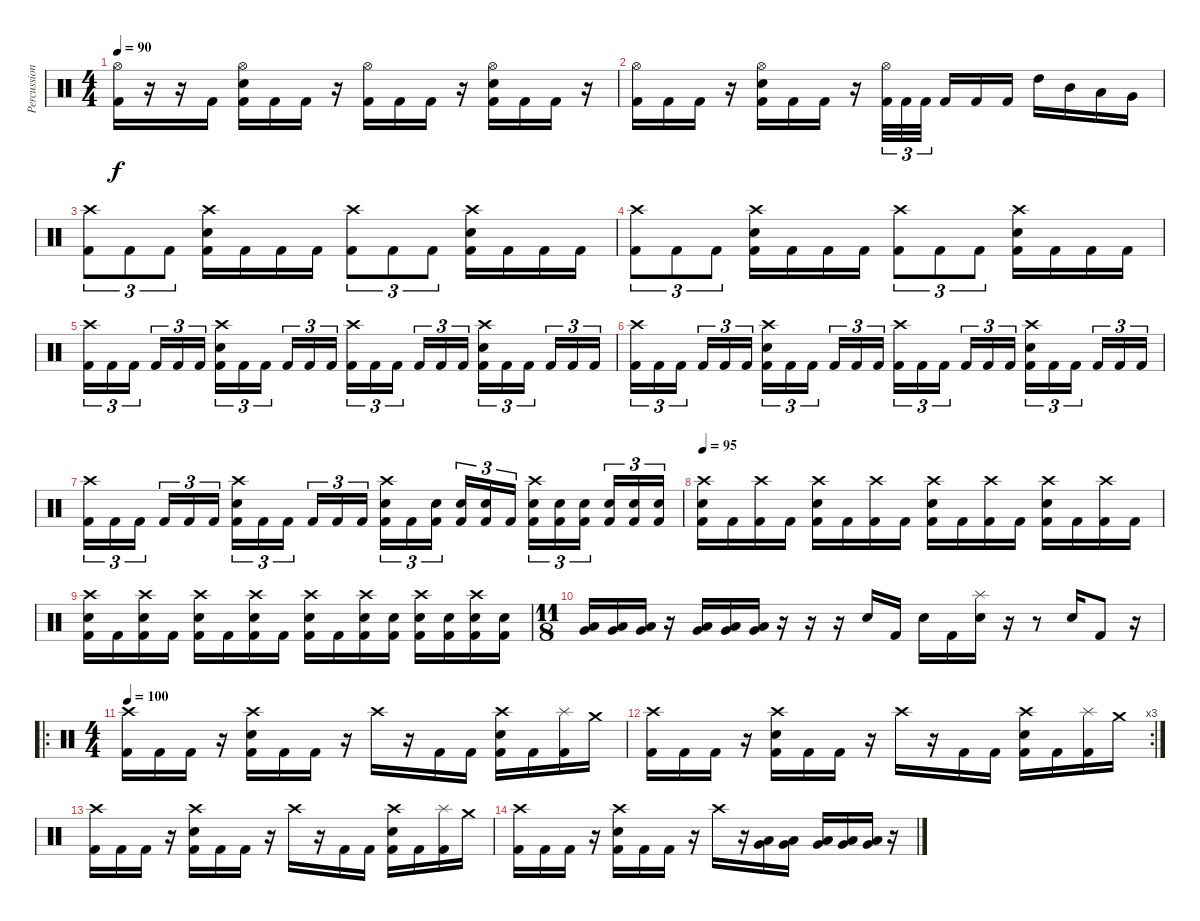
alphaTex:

\track ("Percussion" "Percussion") {instrument percussion}
\staff {score}
\articulation defaults
\ts (4 4)
\tempo 90
\clef neutral
\ks c
("Hi-Hat (open)" "Kick (hit) 2").16{dy f} r.16 r.16 "Kick (hit) 2".16 ("Hi-Hat (open)" "Electric Snare (hit)" "Kick (hit) 2").16 "Kick (hit) 2".16 "Kick (hit) 2".16 r.16 ("Hi-Hat (open)" "Kick (hit) 2").16 "Kick (hit) 2".16 "Kick (hit) 2".16 r.16 ("Hi-Hat (open)" "Electric Snare (hit)" "Kick (hit) 2").16 "Kick (hit) 2".16 "Kick (hit) 2".16 r.16 |
("Hi-Hat (open)" "Kick (hit) 2").16 "Kick (hit) 2".16 "Kick (hit) 2".16 r.16 ("Hi-Hat (open)" "Electric Snare (hit)" "Kick (hit) 2").16 "Kick (hit) 2".16 "Kick (hit) 2".16 r.16 ("Hi-Hat (open)" "Kick (hit) 2").32{tu (3 2)} "Kick (hit) 2".32{tu (3 2)} "Kick (hit) 2".32{tu (3 2) beam splitsecondary} "Kick (hit) 2".16 "Kick (hit) 2".16 "Kick (hit) 2".16 "High Tom (hit)".16 "Mid Tom (hit)".16 "Low Tom (hit)".16 "Very Low Tom (hit)".16 |
("Crash high (hit)" "Kick (hit) 2").8{tu (3 2)} "Kick (hit) 2".8{tu (3 2)} "Kick (hit) 2".8{tu (3 2)} ("Crash high (hit)" "Electric Snare (hit)" "Kick (hit) 2").16 "Kick (hit) 2".16 "Kick (hit) 2".16 "Kick (hit) 2".16 ("Crash high (hit)" "Kick (hit) 2").8{tu (3 2)} "Kick (hit) 2".8{tu (3 2)} "Kick (hit) 2".8{tu (3 2)} ("Crash high (hit)" "Electric Snare (hit)" "Kick (hit) 2").16 "Kick (hit) 2".16 "Kick (hit) 2".16 "Kick (hit) 2".16 |
("Crash high (hit)" "Kick (hit) 2").8{tu (3 2)} "Kick (hit) 2".8{tu (3 2)} "Kick (hit) 2".8{tu (3 2)} ("Crash high (hit)" "Electric Snare (hit)" "Kick (hit) 2").16 "Kick (hit) 2".16 "Kick (hit) 2".16 "Kick (hit) 2".16 ("Crash high (hit)" "Kick (hit) 2").8{tu (3 2)} "Kick (hit) 2".8{tu (3 2)} "Kick (hit) 2".8{tu (3 2)} ("Crash high (hit)" "Electric Snare (hit)" "Kick (hit) 2").16 "Kick (hit) 2".16 "Kick (hit) 2".16 "Kick (hit) 2".16 |
("Crash high (hit)" "Kick (hit) 2").16{tu (3 2)} "Kick (hit) 2".16{tu (3 2)} "Kick (hit) 2".16{tu (3 2) beam splitsecondary} "Kick (hit) 2".16{tu (3 2)} "Kick (hit) 2".16{tu (3 2)} "Kick (hit) 2".16{tu (3 2)} ("Crash high (hit)" "Electric Snare (hit)" "Kick (hit) 2").16{tu (3 2)} "Kick (hit) 2".16{tu (3 2)} "Kick (hit) 2".16{tu (3 2) beam splitsecondary} "Kick (hit) 2".16{tu (3 2)} "Kick (hit) 2".16{tu (3 2)} "Kick (hit) 2".16{tu (3 2)} ("Crash high (hit)" "Kick (hit) 2").16{tu (3 2)} "Kick (hit) 2".16{tu (3 2)} "Kick (hit) 2".16{tu (3 2) beam splitsecondary} "Kick (hit) 2".16{tu (3 2)} "Kick (hit) 2".16{tu (3 2)} "Kick (hit) 2".16{tu (3 2)} ("Crash high (hit)" "Electric Snare (hit)" "Kick (hit) 2").16{tu (3 2)} "Kick (hit) 2".16{tu (3 2)} "Kick (hit) 2".16{tu (3 2) beam splitsecondary} "Kick (hit) 2".16{tu (3 2)} "Kick (hit) 2".16{tu (3 2)} "Kick (hit) 2".16{tu (3 2)} |
("Crash high (hit)" "Kick (hit) 2").16{tu (3 2)} "Kick (hit) 2".16{tu (3 2)} "Kick (hit) 2".16{tu (3 2) beam splitsecondary} "Kick (hit) 2".16{tu (3 2)} "Kick (hit) 2".16{tu (3 2)} "Kick (hit) 2".16{tu (3 2)} ("Crash high (hit)" "Electric Snare (hit)" "Kick (hit) 2").16{tu (3 2)} "Kick (hit) 2".16{tu (3 2)} "Kick (hit) 2".16{tu (3 2) beam splitsecondary} "Kick (hit) 2".16{tu (3 2)} "Kick (hit) 2".16{tu (3 2)} "Kick (hit) 2".16{tu (3 2)} ("Crash high (hit)" "Kick (hit) 2").16{tu (3 2)} "Kick (hit) 2".16{tu (3 2)} "Kick (hit) 2".16{tu (3 2) beam splitsecondary} "Kick (hit) 2".16{tu (3 2)} "Kick (hit) 2".16{tu (3 2)} "Kick (hit) 2".16{tu (3 2)} ("Crash high (hit)" "Electric Snare (hit)" "Kick (hit) 2").16{tu (3 2)} "Kick (hit) 2".16{tu (3 2)} "Kick (hit) 2".16{tu (3 2) beam splitsecondary} "Kick (hit) 2".16{tu (3 2)} "Kick (hit) 2".16{tu (3 2)} "Kick (hit) 2".16{tu (3 2)} |
("Crash high (hit)" "Kick (hit) 2").16{tu (3 2)} "Kick (hit) 2".16{tu (3 2)} "Kick (hit) 2".16{tu (3 2) beam splitsecondary} "Kick (hit) 2".16{tu (3 2)} "Kick (hit) 2".16{tu (3 2)} "Kick (hit) 2".16{tu (3 2)} ("Crash high (hit)" "Electric Snare (hit)" "Kick (hit) 2").16{tu (3 2)} "Kick (hit) 2".16{tu (3 2)} "Kick (hit) 2".16{tu (3 2) beam splitsecondary} "Kick (hit) 2".16{tu (3 2)} "Kick (hit) 2".16{tu (3 2)} "Kick (hit) 2".16{tu (3 2)} ("Crash high (hit)" "Electric Snare (hit)" "Kick (hit) 2").16{tu (3 2)} "Kick (hit) 2".16{tu (3 2)} ("Electric Snare (hit)" "Kick (hit) 2").16{tu (3 2) beam splitsecondary} ("Electric Snare (hit)" "Kick (hit) 2").16{tu (3 2)} ("Electric Snare (hit)" "Kick (hit) 2").16{tu (3 2)} "Kick (hit) 2".16{tu (3 2)} ("Crash high (hit)" "Electric Snare (hit)" "Kick (hit) 2").16{tu (3 2)} ("Electric Snare (hit)" "Kick (hit) 2").16{tu (3 2)} ("Electric Snare (hit)" "Kick (hit) 2").16{tu (3 2) beam splitsecondary} ("Electric Snare (hit)" "Kick (hit) 2").16{tu (3 2)} ("Electric Snare (hit)" "Kick (hit) 2").16{tu (3 2)} ("Electric Snare (hit)" "Kick (hit) 2").16{tu (3 2)} |
\tempo 95
("Crash high (hit)" "Electric Snare (hit)" "Kick (hit) 2").16 "Kick (hit) 2".16 ("Crash high (hit)" "Kick (hit) 2").16 "Kick (hit) 2".16 ("Crash high (hit)" "Electric Snare (hit)" "Kick (hit) 2").16 "Kick (hit) 2".16 ("Crash high (hit)" "Kick (hit) 2").16 "Kick (hit) 2".16 ("Crash high (hit)" "Electric Snare (hit)" "Kick (hit) 2").16 "Kick (hit) 2".16 ("Crash high (hit)" "Kick (hit) 2").16 "Kick (hit) 2".16 ("Crash high (hit)" "Electric Snare (hit)" "Kick (hit) 2").16 "Kick (hit) 2".16 ("Crash high (hit)" "Kick (hit) 2").16 "Kick (hit) 2".16 |
("Crash high (hit)" "Electric Snare (hit)" "Kick (hit) 2").16 "Kick (hit) 2".16 ("Crash high (hit)" "Electric Snare (hit)" "Kick (hit) 2").16 "Kick (hit) 2".16 ("Crash high (hit)" "Electric Snare (hit)" "Kick (hit) 2").16 "Kick (hit) 2".16 ("Crash high (hit)" "Electric Snare (hit)" "Kick (hit) 2").16 "Kick (hit) 2".16 ("Crash high (hit)" "Electric Snare (hit)" "Kick (hit) 2").16 "Kick (hit) 2".16 ("Crash high (hit)" "Electric Snare (hit)" "Kick (hit) 2").16 ("Electric Snare (hit)" "Kick (hit) 2").16 ("Crash high (hit)" "Electric Snare (hit)" "Kick (hit) 2").16 ("Electric Snare (hit)" "Kick (hit) 2").16 ("Crash high (hit)" "Electric Snare (hit)" "Kick (hit) 2").16 ("Electric Snare (hit)" "Kick (hit) 2").16 |
\ts (11 8)
("Very Low Tom (hit)" "Low Tom (hit)").16 ("Very Low Tom (hit)" "Low Tom (hit)").16 ("Very Low Tom (hit)" "Low Tom (hit)").16 r.16 ("Very Low Tom (hit)" "Low Tom (hit)").16 ("Very Low Tom (hit)" "Low Tom (hit)").16 ("Very Low Tom (hit)" "Low Tom (hit)").16 r.16 r.16 r.16 "Electric Snare (hit)".16 "Kick (hit) 2".16 "Electric Snare (hit)".16 "Kick (hit) 2".16 ("Splash (hit)" "Electric Snare (hit)").16 r.16 r.8 "Electric Snare (hit)".16 "Kick (hit) 2".8 r.16 |
\ro
\ts (4 4)
\tempo 100
("Crash high (hit)" "Kick (hit) 2").16 "Kick (hit) 2".16 "Kick (hit) 2".16 r.16 ("Crash high (hit)" "Electric Snare (hit)" "Kick (hit) 2").16 "Kick (hit) 2".16 "Kick (hit) 2".16 r.16 "Crash high (hit)".16 r.16 "Kick (hit) 2".16 "Kick (hit) 2".16 ("Crash high (hit)" "Electric Snare (hit)" "Kick (hit) 2").16 "Kick (hit) 2".16 ("Splash (hit)" "Kick (hit) 2").16 "Crash medium (hit)".16 |
\rc 3
("Crash high (hit)" "Kick (hit) 2").16 "Kick (hit) 2".16 "Kick (hit) 2".16 r.16 ("Crash high (hit)" "Electric Snare (hit)" "Kick (hit) 2").16 "Kick (hit) 2".16 "Kick (hit) 2".16 r.16 "Crash high (hit)".16 r.16 "Kick (hit) 2".16 "Kick (hit) 2".16 ("Crash high (hit)" "Electric Snare (hit)" "Kick (hit) 2").16 "Kick (hit) 2".16 ("Splash (hit)" "Kick (hit) 2").16 "Crash medium (hit)".16 |
("Crash high (hit)" "Kick (hit) 2").16 "Kick (hit) 2".16 "Kick (hit) 2".16 r.16 ("Crash high (hit)" "Electric Snare (hit)" "Kick (hit) 2").16 "Kick (hit) 2".16 "Kick (hit) 2".16 r.16 "Crash high (hit)".16 r.16 "Kick (hit) 2".16 "Kick (hit) 2".16 ("Crash high (hit)" "Electric Snare (hit)" "Kick (hit) 2").16 "Kick (hit) 2".16 ("Splash (hit)" "Kick (hit) 2").16 "Crash medium (hit)".16 |
("Crash high (hit)" "Kick (hit) 2").16 "Kick (hit) 2".16 "Kick (hit) 2".16 r.16 ("Crash high (hit)" "Electric Snare (hit)" "Kick (hit) 2").16 "Kick (hit) 2".16 "Kick (hit) 2".16 r.16 "Crash high (hit)".16 r.16 ("Very Low Tom (hit)" "Low Tom (hit)").16 ("Very Low Tom (hit)" "Low Tom (hit)").16 ("Very Low Tom (hit)" "Low Tom (hit)").16 ("Very Low Tom (hit)" "Low Tom (hit)").16 ("Very Low Tom (hit)" "Low Tom (hit)").16 r.16
